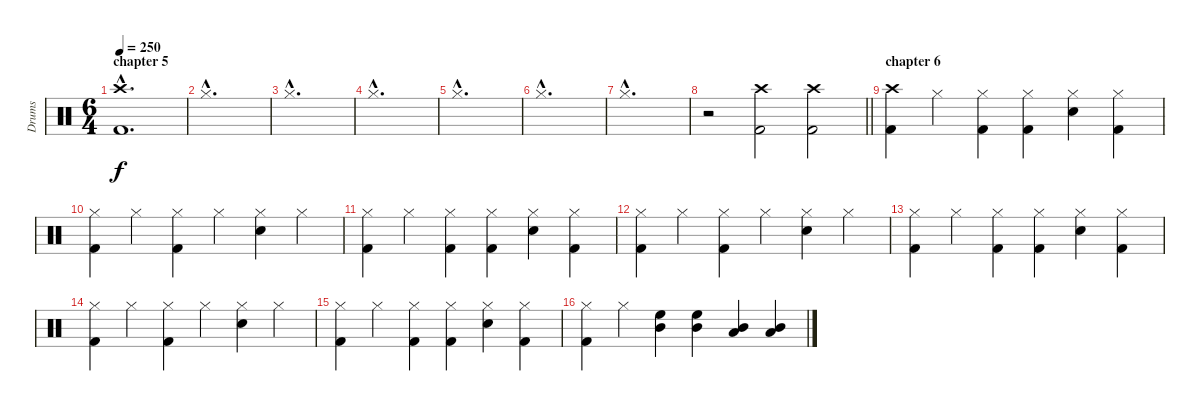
\track ("Drums" "Drums") {instrument percussion}
\staff {score}
\articulation defaults
\ts (6 4)
\section ("" "chapter 5")
\tempo 250
\clef neutral
\ks c
("Crash high (hit)"{hac} "Kick (hit) 2"{hac}).1{d dy f} |
"Hi-Hat (closed)"{hac}.1{d} |
"Hi-Hat (closed)"{hac}.1{d} |
"Hi-Hat (closed)"{hac}.1{d} |
"Hi-Hat (closed)"{hac}.1{d} |
"Hi-Hat (closed)"{hac}.1{d} |
"Hi-Hat (closed)"{hac}.1{d} |
\barLineRight lightlight
r.2 ("Crash high (hit)" "Kick (hit) 2").2 ("Crash high (hit)" "Kick (hit) 2").2 |
\section ("" "chapter 6")
("Crash high (hit)" "Kick (hit) 2").4 "Hi-Hat (closed)".4 ("Hi-Hat (closed)" "Kick (hit) 2").4 ("Hi-Hat (closed)" "Kick (hit) 2").4 ("Hi-Hat (closed)" "Snare (hit) 2").4 ("Hi-Hat (closed)" "Kick (hit) 2").4 |
("Hi-Hat (closed)" "Kick (hit) 2").4 "Hi-Hat (closed)".4 ("Hi-Hat (closed)" "Kick (hit) 2").4 "Hi-Hat (closed)".4 ("Hi-Hat (closed)" "Snare (hit) 2").4 "Hi-Hat (closed)".4 |
("Hi-Hat (closed)" "Kick (hit) 2").4 "Hi-Hat (closed)".4 ("Hi-Hat (closed)" "Kick (hit) 2").4 ("Hi-Hat (closed)" "Kick (hit) 2").4 ("Hi-Hat (closed)" "Snare (hit) 2").4 ("Hi-Hat (closed)" "Kick (hit) 2").4 |
("Hi-Hat (closed)" "Kick (hit) 2").4 "Hi-Hat (closed)".4 ("Hi-Hat (closed)" "Kick (hit) 2").4 "Hi-Hat (closed)".4 ("Hi-Hat (closed)" "Snare (hit) 2").4 "Hi-Hat (closed)".4 |
("Hi-Hat (closed)" "Kick (hit) 2").4 "Hi-Hat (closed)".4 ("Hi-Hat (closed)" "Kick (hit) 2").4 ("Hi-Hat (closed)" "Kick (hit) 2").4 ("Hi-Hat (closed)" "Snare (hit) 2").4 ("Hi-Hat (closed)" "Kick (hit) 2").4 |
("Hi-Hat (closed)" "Kick (hit) 2").4 "Hi-Hat (closed)".4 ("Hi-Hat (closed)" "Kick (hit) 2").4 "Hi-Hat (closed)".4 ("Hi-Hat (closed)" "Snare (hit) 2").4 "Hi-Hat (closed)".4 |
("Hi-Hat (closed)" "Kick (hit) 2").4 "Hi-Hat (closed)".4 ("Hi-Hat (closed)" "Kick (hit) 2").4 ("Hi-Hat (closed)" "Kick (hit) 2").4 ("Hi-Hat (closed)" "Snare (hit) 2").4 ("Hi-Hat (closed)" "Kick (hit) 2").4 |
("Hi-Hat (closed)" "Kick (hit) 2").4 "Hi-Hat (closed)".4 ("Mid Tom (hit)" "High Floor Tom (hit)").4 ("Mid Tom (hit)" "High Floor Tom (hit)").4 ("Low Tom (hit)" "Mid Tom (hit)").4 ("Low Tom (hit)" "Mid Tom (hit)").4
